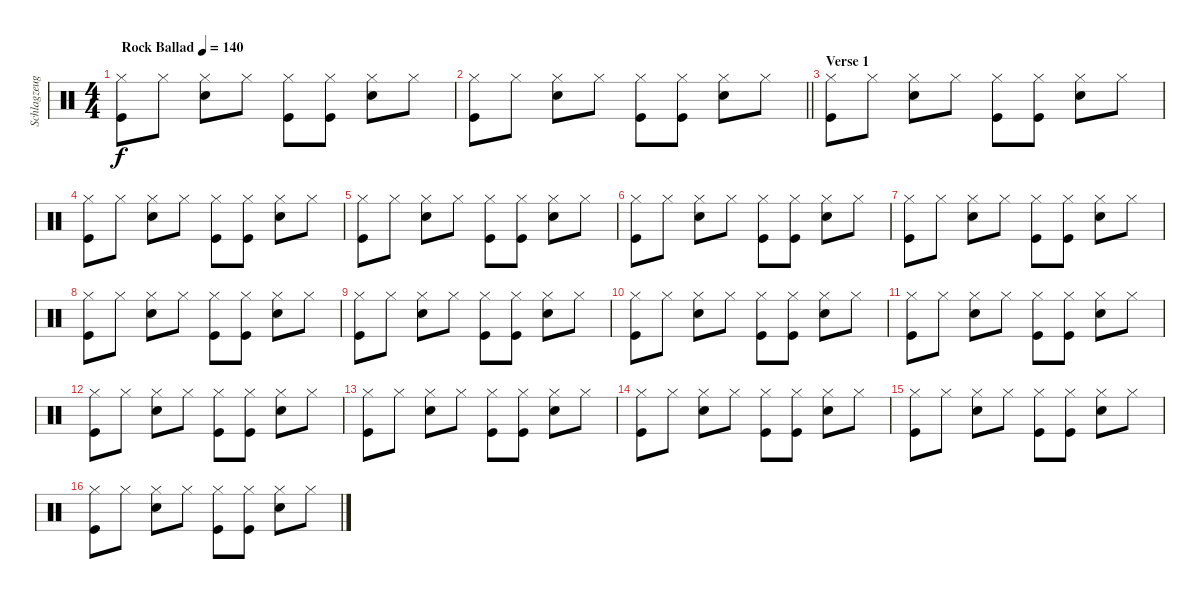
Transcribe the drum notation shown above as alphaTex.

\track ("Schlagzeug 1st" "Schlagzeug") {instrument percussion}
\staff {score}
\articulation defaults
\ts (4 4)
\tempo (140 "Rock Ballad")
\clef neutral
\ks c
("Hi-Hat (closed)" "Kick (hit)").8{dy f} "Hi-Hat (closed)".8 ("Hi-Hat (closed)" "Snare (hit) 2").8 "Hi-Hat (closed)".8 ("Hi-Hat (closed)" "Kick (hit)").8 ("Hi-Hat (closed)" "Kick (hit)").8 ("Hi-Hat (closed)" "Snare (hit) 2").8 "Hi-Hat (closed)".8 |
\barLineRight lightlight
("Hi-Hat (closed)" "Kick (hit)").8 "Hi-Hat (closed)".8 ("Hi-Hat (closed)" "Snare (hit) 2").8 "Hi-Hat (closed)".8 ("Hi-Hat (closed)" "Kick (hit)").8 ("Hi-Hat (closed)" "Kick (hit)").8 ("Hi-Hat (closed)" "Snare (hit) 2").8 "Hi-Hat (closed)".8 |
\section ("" "Verse 1")
("Hi-Hat (closed)" "Kick (hit)").8 "Hi-Hat (closed)".8 ("Hi-Hat (closed)" "Snare (hit) 2").8 "Hi-Hat (closed)".8 ("Hi-Hat (closed)" "Kick (hit)").8 ("Hi-Hat (closed)" "Kick (hit)").8 ("Hi-Hat (closed)" "Snare (hit) 2").8 "Hi-Hat (closed)".8 |
("Hi-Hat (closed)" "Kick (hit)").8 "Hi-Hat (closed)".8 ("Hi-Hat (closed)" "Snare (hit) 2").8 "Hi-Hat (closed)".8 ("Hi-Hat (closed)" "Kick (hit)").8 ("Hi-Hat (closed)" "Kick (hit)").8 ("Hi-Hat (closed)" "Snare (hit) 2").8 "Hi-Hat (closed)".8 |
("Hi-Hat (closed)" "Kick (hit)").8 "Hi-Hat (closed)".8 ("Hi-Hat (closed)" "Snare (hit) 2").8 "Hi-Hat (closed)".8 ("Hi-Hat (closed)" "Kick (hit)").8 ("Hi-Hat (closed)" "Kick (hit)").8 ("Hi-Hat (closed)" "Snare (hit) 2").8 "Hi-Hat (closed)".8 |
("Hi-Hat (closed)" "Kick (hit)").8 "Hi-Hat (closed)".8 ("Hi-Hat (closed)" "Snare (hit) 2").8 "Hi-Hat (closed)".8 ("Hi-Hat (closed)" "Kick (hit)").8 ("Hi-Hat (closed)" "Kick (hit)").8 ("Hi-Hat (closed)" "Snare (hit) 2").8 "Hi-Hat (closed)".8 |
("Hi-Hat (closed)" "Kick (hit)").8 "Hi-Hat (closed)".8 ("Hi-Hat (closed)" "Snare (hit) 2").8 "Hi-Hat (closed)".8 ("Hi-Hat (closed)" "Kick (hit)").8 ("Hi-Hat (closed)" "Kick (hit)").8 ("Hi-Hat (closed)" "Snare (hit) 2").8 "Hi-Hat (closed)".8 |
("Hi-Hat (closed)" "Kick (hit)").8 "Hi-Hat (closed)".8 ("Hi-Hat (closed)" "Snare (hit) 2").8 "Hi-Hat (closed)".8 ("Hi-Hat (closed)" "Kick (hit)").8 ("Hi-Hat (closed)" "Kick (hit)").8 ("Hi-Hat (closed)" "Snare (hit) 2").8 "Hi-Hat (closed)".8 |
("Hi-Hat (closed)" "Kick (hit)").8 "Hi-Hat (closed)".8 ("Hi-Hat (closed)" "Snare (hit) 2").8 "Hi-Hat (closed)".8 ("Hi-Hat (closed)" "Kick (hit)").8 ("Hi-Hat (closed)" "Kick (hit)").8 ("Hi-Hat (closed)" "Snare (hit) 2").8 "Hi-Hat (closed)".8 |
("Hi-Hat (closed)" "Kick (hit)").8 "Hi-Hat (closed)".8 ("Hi-Hat (closed)" "Snare (hit) 2").8 "Hi-Hat (closed)".8 ("Hi-Hat (closed)" "Kick (hit)").8 ("Hi-Hat (closed)" "Kick (hit)").8 ("Hi-Hat (closed)" "Snare (hit) 2").8 "Hi-Hat (closed)".8 |
("Hi-Hat (closed)" "Kick (hit)").8 "Hi-Hat (closed)".8 ("Hi-Hat (closed)" "Snare (hit) 2").8 "Hi-Hat (closed)".8 ("Hi-Hat (closed)" "Kick (hit)").8 ("Hi-Hat (closed)" "Kick (hit)").8 ("Hi-Hat (closed)" "Snare (hit) 2").8 "Hi-Hat (closed)".8 |
("Hi-Hat (closed)" "Kick (hit)").8 "Hi-Hat (closed)".8 ("Hi-Hat (closed)" "Snare (hit) 2").8 "Hi-Hat (closed)".8 ("Hi-Hat (closed)" "Kick (hit)").8 ("Hi-Hat (closed)" "Kick (hit)").8 ("Hi-Hat (closed)" "Snare (hit) 2").8 "Hi-Hat (closed)".8 |
("Hi-Hat (closed)" "Kick (hit)").8 "Hi-Hat (closed)".8 ("Hi-Hat (closed)" "Snare (hit) 2").8 "Hi-Hat (closed)".8 ("Hi-Hat (closed)" "Kick (hit)").8 ("Hi-Hat (closed)" "Kick (hit)").8 ("Hi-Hat (closed)" "Snare (hit) 2").8 "Hi-Hat (closed)".8 |
("Hi-Hat (closed)" "Kick (hit)").8 "Hi-Hat (closed)".8 ("Hi-Hat (closed)" "Snare (hit) 2").8 "Hi-Hat (closed)".8 ("Hi-Hat (closed)" "Kick (hit)").8 ("Hi-Hat (closed)" "Kick (hit)").8 ("Hi-Hat (closed)" "Snare (hit) 2").8 "Hi-Hat (closed)".8 |
("Hi-Hat (closed)" "Kick (hit)").8 "Hi-Hat (closed)".8 ("Hi-Hat (closed)" "Snare (hit) 2").8 "Hi-Hat (closed)".8 ("Hi-Hat (closed)" "Kick (hit)").8 ("Hi-Hat (closed)" "Kick (hit)").8 ("Hi-Hat (closed)" "Snare (hit) 2").8 "Hi-Hat (closed)".8 |
("Hi-Hat (closed)" "Kick (hit)").8 "Hi-Hat (closed)".8 ("Hi-Hat (closed)" "Snare (hit) 2").8 "Hi-Hat (closed)".8 ("Hi-Hat (closed)" "Kick (hit)").8 ("Hi-Hat (closed)" "Kick (hit)").8 ("Hi-Hat (closed)" "Snare (hit) 2").8 "Hi-Hat (closed)".8
